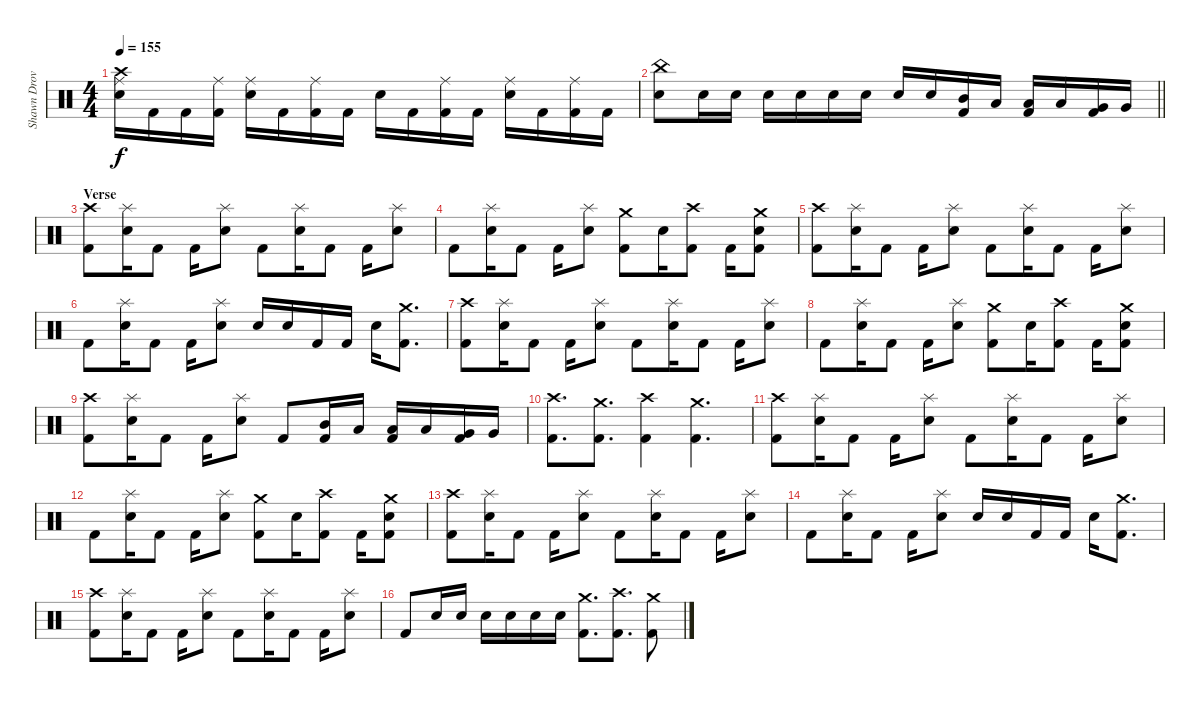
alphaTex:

\track ("Shawn Drover" "Shawn Drov") {instrument percussion}
\staff {score}
\articulation defaults
\ts (4 4)
\tempo 155
\clef neutral
\ks c
("Crash high (hit)" "Ride (middle)" "Snare (hit) 2").16{dy f} "Kick (hit) 2".16 "Kick (hit) 2".16 ("Ride (middle)" "Kick (hit) 2").16 ("Ride (middle)" "Snare (hit) 2").16 "Kick (hit) 2".16 ("Ride (middle)" "Kick (hit) 2").16 "Kick (hit) 2".16 "Snare (hit) 2".16 "Kick (hit) 2".16 ("Ride (middle)" "Kick (hit) 2").16 "Kick (hit) 2".16 ("Ride (middle)" "Snare (hit) 2").16 "Kick (hit) 2".16 ("Ride (middle)" "Kick (hit) 2").16 "Kick (hit) 2".16 |
\barLineRight lightlight
("China (hit)" "Snare (hit) 2").8 "Snare (hit) 2".16 "Snare (hit) 2".16 "Snare (hit) 2".16 "Snare (hit) 2".16 "Snare (hit) 2".16 "Snare (hit) 2".16 "Snare (hit) 2".16 "Snare (hit) 2".16 ("Mid Tom (hit)" "Kick (hit) 2").16 "Low Tom (hit)".16 ("Low Tom (hit)" "Kick (hit) 2").16 "Low Tom (hit)".16 ("Very Low Tom (hit)" "Kick (hit) 2").16 "Very Low Tom (hit)".16 |
\section ("" "Verse")
("Crash high (hit)" "Kick (hit) 2").8 ("Splash (hit)" "Snare (hit) 2").16 "Kick (hit) 2".8 "Kick (hit) 2".16 ("Splash (hit)" "Snare (hit) 2").8 "Kick (hit) 2".8 ("Splash (hit)" "Snare (hit) 2").16 "Kick (hit) 2".8 "Kick (hit) 2".16 ("Splash (hit)" "Snare (hit) 2").8 |
"Kick (hit) 2".8 ("Splash (hit)" "Snare (hit) 2").16 "Kick (hit) 2".8 "Kick (hit) 2".16 ("Splash (hit)" "Snare (hit) 2").8 ("Crash medium (hit)" "Kick (hit) 2").8 "Snare (hit) 2".16 ("Crash high (hit)" "Kick (hit) 2").8 "Kick (hit) 2".16 ("Crash medium (hit)" "Snare (hit) 2" "Kick (hit) 2").8 |
("Crash high (hit)" "Kick (hit) 2").8 ("Splash (hit)" "Snare (hit) 2").16 "Kick (hit) 2".8 "Kick (hit) 2".16 ("Splash (hit)" "Snare (hit) 2").8 "Kick (hit) 2".8 ("Splash (hit)" "Snare (hit) 2").16 "Kick (hit) 2".8 "Kick (hit) 2".16 ("Splash (hit)" "Snare (hit) 2").8 |
"Kick (hit) 2".8 ("Splash (hit)" "Snare (hit) 2").16 "Kick (hit) 2".8 "Kick (hit) 2".16 ("Splash (hit)" "Snare (hit) 2").8 "Snare (hit) 2".16 "Snare (hit) 2".16 "Kick (hit) 2".16 "Kick (hit) 2".16 "Snare (hit) 2".16 ("Crash medium (hit)" "Kick (hit) 2").8{d} |
("Crash high (hit)" "Kick (hit) 2").8 ("Splash (hit)" "Snare (hit) 2").16 "Kick (hit) 2".8 "Kick (hit) 2".16 ("Splash (hit)" "Snare (hit) 2").8 "Kick (hit) 2".8 ("Splash (hit)" "Snare (hit) 2").16 "Kick (hit) 2".8 "Kick (hit) 2".16 ("Splash (hit)" "Snare (hit) 2").8 |
"Kick (hit) 2".8 ("Splash (hit)" "Snare (hit) 2").16 "Kick (hit) 2".8 "Kick (hit) 2".16 ("Splash (hit)" "Snare (hit) 2").8 ("Crash medium (hit)" "Kick (hit) 2").8 "Snare (hit) 2".16 ("Crash high (hit)" "Kick (hit) 2").8 "Kick (hit) 2".16 ("Crash medium (hit)" "Snare (hit) 2" "Kick (hit) 2").8 |
("Crash high (hit)" "Kick (hit) 2").8 ("Splash (hit)" "Snare (hit) 2").16 "Kick (hit) 2".8 "Kick (hit) 2".16 ("Splash (hit)" "Snare (hit) 2").8 "Kick (hit) 2".8 ("Mid Tom (hit)" "Kick (hit) 2").16 "Low Tom (hit)".16 ("Low Tom (hit)" "Kick (hit) 2").16 "Low Tom (hit)".16 ("Very Low Tom (hit)" "Kick (hit) 2").16 "Very Low Tom (hit)".16 |
("Crash high (hit)" "Kick (hit) 2").8{d} ("Crash medium (hit)" "Kick (hit) 2").8{d} ("Crash high (hit)" "Kick (hit) 2").4 ("Crash medium (hit)" "Kick (hit) 2").4{d} |
("Crash high (hit)" "Kick (hit) 2").8 ("Splash (hit)" "Snare (hit) 2").16 "Kick (hit) 2".8 "Kick (hit) 2".16 ("Splash (hit)" "Snare (hit) 2").8 "Kick (hit) 2".8 ("Splash (hit)" "Snare (hit) 2").16 "Kick (hit) 2".8 "Kick (hit) 2".16 ("Splash (hit)" "Snare (hit) 2").8 |
"Kick (hit) 2".8 ("Splash (hit)" "Snare (hit) 2").16 "Kick (hit) 2".8 "Kick (hit) 2".16 ("Splash (hit)" "Snare (hit) 2").8 ("Crash medium (hit)" "Kick (hit) 2").8 "Snare (hit) 2".16 ("Crash high (hit)" "Kick (hit) 2").8 "Kick (hit) 2".16 ("Crash medium (hit)" "Snare (hit) 2" "Kick (hit) 2").8 |
("Crash high (hit)" "Kick (hit) 2").8 ("Splash (hit)" "Snare (hit) 2").16 "Kick (hit) 2".8 "Kick (hit) 2".16 ("Splash (hit)" "Snare (hit) 2").8 "Kick (hit) 2".8 ("Splash (hit)" "Snare (hit) 2").16 "Kick (hit) 2".8 "Kick (hit) 2".16 ("Splash (hit)" "Snare (hit) 2").8 |
"Kick (hit) 2".8 ("Splash (hit)" "Snare (hit) 2").16 "Kick (hit) 2".8 "Kick (hit) 2".16 ("Splash (hit)" "Snare (hit) 2").8 "Snare (hit) 2".16 "Snare (hit) 2".16 "Kick (hit) 2".16 "Kick (hit) 2".16 "Snare (hit) 2".16 ("Crash medium (hit)" "Kick (hit) 2").8{d} |
("Crash high (hit)" "Kick (hit) 2").8 ("Splash (hit)" "Snare (hit) 2").16 "Kick (hit) 2".8 "Kick (hit) 2".16 ("Splash (hit)" "Snare (hit) 2").8 "Kick (hit) 2".8 ("Splash (hit)" "Snare (hit) 2").16 "Kick (hit) 2".8 "Kick (hit) 2".16 ("Splash (hit)" "Snare (hit) 2").8 |
"Kick (hit) 2".8 "Snare (hit) 2".16 "Snare (hit) 2".16 "Snare (hit) 2".16 "Snare (hit) 2".16 "Snare (hit) 2".16 "Snare (hit) 2".16 ("Crash medium (hit)" "Kick (hit) 2").8{d} ("Crash high (hit)" "Kick (hit) 2").8{d} ("Crash medium (hit)" "Kick (hit) 2").8
